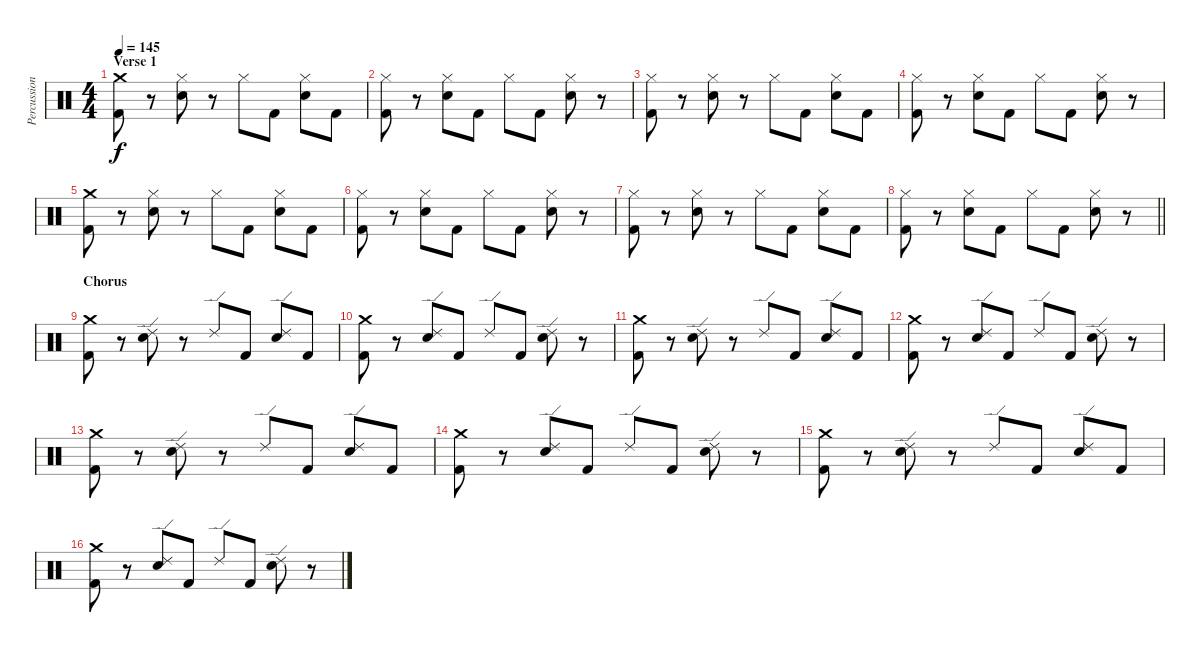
\track ("Percussion" "Percussion") {instrument percussion}
\staff {score}
\articulation defaults
\ts (4 4)
\section ("" "Verse 1")
\tempo 145
\clef neutral
\ks c
("Crash medium (hit)" "Kick (hit) 2").8{dy f} r.8 ("Hi-Hat (closed)" "Electric Snare (hit)").8 r.8 "Hi-Hat (closed)".8 "Kick (hit) 2".8 ("Hi-Hat (closed)" "Electric Snare (hit)").8 "Kick (hit) 2".8 |
("Hi-Hat (closed)" "Kick (hit) 2").8 r.8 ("Hi-Hat (closed)" "Electric Snare (hit)").8 "Kick (hit) 2".8 "Hi-Hat (closed)".8 "Kick (hit) 2".8 ("Hi-Hat (closed)" "Electric Snare (hit)").8 r.8 |
("Hi-Hat (closed)" "Kick (hit) 2").8 r.8 ("Hi-Hat (closed)" "Electric Snare (hit)").8 r.8 "Hi-Hat (closed)".8 "Kick (hit) 2".8 ("Hi-Hat (closed)" "Electric Snare (hit)").8 "Kick (hit) 2".8 |
("Hi-Hat (closed)" "Kick (hit) 2").8 r.8 ("Hi-Hat (closed)" "Electric Snare (hit)").8 "Kick (hit) 2".8 "Hi-Hat (closed)".8 "Kick (hit) 2".8 ("Hi-Hat (closed)" "Electric Snare (hit)").8 r.8 |
("Crash medium (hit)" "Kick (hit) 2").8 r.8 ("Hi-Hat (closed)" "Electric Snare (hit)").8 r.8 "Hi-Hat (closed)".8 "Kick (hit) 2".8 ("Hi-Hat (closed)" "Electric Snare (hit)").8 "Kick (hit) 2".8 |
("Hi-Hat (closed)" "Kick (hit) 2").8 r.8 ("Hi-Hat (closed)" "Electric Snare (hit)").8 "Kick (hit) 2".8 "Hi-Hat (closed)".8 "Kick (hit) 2".8 ("Hi-Hat (closed)" "Electric Snare (hit)").8 r.8 |
("Hi-Hat (closed)" "Kick (hit) 2").8 r.8 ("Hi-Hat (closed)" "Electric Snare (hit)").8 r.8 "Hi-Hat (closed)".8 "Kick (hit) 2".8 ("Hi-Hat (closed)" "Electric Snare (hit)").8 "Kick (hit) 2".8 |
\barLineRight lightlight
("Hi-Hat (closed)" "Kick (hit) 2").8 r.8 ("Hi-Hat (closed)" "Electric Snare (hit)").8 "Kick (hit) 2".8 "Hi-Hat (closed)".8 "Kick (hit) 2".8 ("Hi-Hat (closed)" "Electric Snare (hit)").8 r.8 |
\section ("" "Chorus")
("Crash medium (hit)" "Kick (hit) 2").8 r.8 ("Ride (edge) 2" "Electric Snare (hit)").8 r.8 "Ride (edge) 2".8 "Kick (hit) 2".8 ("Ride (edge) 2" "Electric Snare (hit)").8 "Kick (hit) 2".8 |
("Crash medium (hit)" "Kick (hit) 2").8 r.8 ("Ride (edge) 2" "Electric Snare (hit)").8 "Kick (hit) 2".8 "Ride (edge) 2".8 "Kick (hit) 2".8 ("Ride (edge) 2" "Electric Snare (hit)").8 r.8 |
("Crash medium (hit)" "Kick (hit) 2").8 r.8 ("Ride (edge) 2" "Electric Snare (hit)").8 r.8 "Ride (edge) 2".8 "Kick (hit) 2".8 ("Ride (edge) 2" "Electric Snare (hit)").8 "Kick (hit) 2".8 |
("Crash medium (hit)" "Kick (hit) 2").8 r.8 ("Ride (edge) 2" "Electric Snare (hit)").8 "Kick (hit) 2".8 "Ride (edge) 2".8 "Kick (hit) 2".8 ("Ride (edge) 2" "Electric Snare (hit)").8 r.8 |
("Crash medium (hit)" "Kick (hit) 2").8 r.8 ("Ride (edge) 2" "Electric Snare (hit)").8 r.8 "Ride (edge) 2".8 "Kick (hit) 2".8 ("Ride (edge) 2" "Electric Snare (hit)").8 "Kick (hit) 2".8 |
("Crash medium (hit)" "Kick (hit) 2").8 r.8 ("Ride (edge) 2" "Electric Snare (hit)").8 "Kick (hit) 2".8 "Ride (edge) 2".8 "Kick (hit) 2".8 ("Ride (edge) 2" "Electric Snare (hit)").8 r.8 |
("Crash medium (hit)" "Kick (hit) 2").8 r.8 ("Ride (edge) 2" "Electric Snare (hit)").8 r.8 "Ride (edge) 2".8 "Kick (hit) 2".8 ("Ride (edge) 2" "Electric Snare (hit)").8 "Kick (hit) 2".8 |
("Crash medium (hit)" "Kick (hit) 2").8 r.8 ("Ride (edge) 2" "Electric Snare (hit)").8 "Kick (hit) 2".8 "Ride (edge) 2".8 "Kick (hit) 2".8 ("Ride (edge) 2" "Electric Snare (hit)").8 r.8
